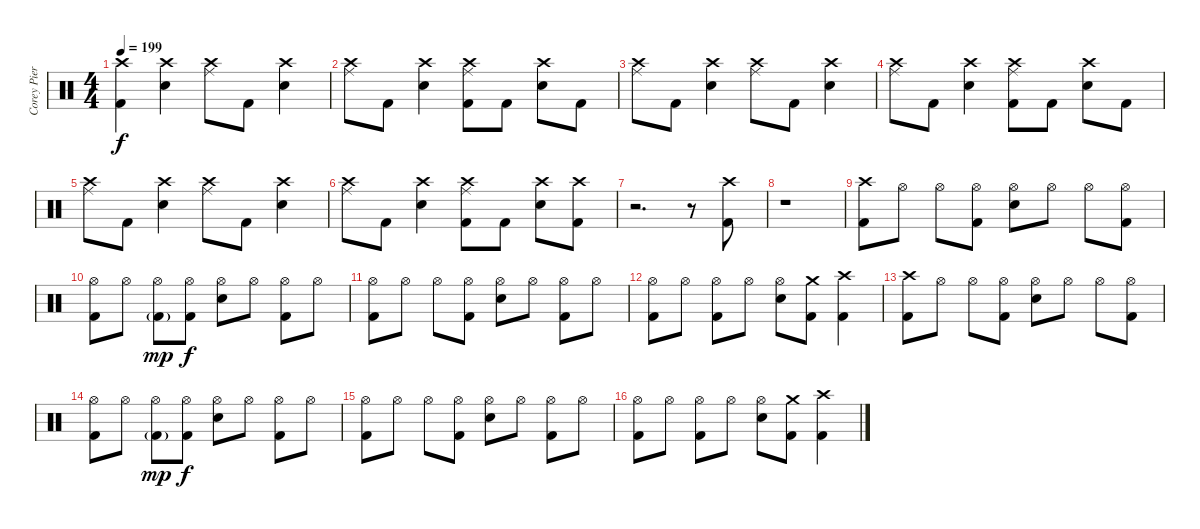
\track ("Corey Pierce (Drums)" "Corey Pier") {instrument percussion}
\staff {score}
\articulation defaults
\ts (4 4)
\tempo 199
\clef neutral
\ks c
("Crash high (hit)" "Kick (hit) 2").4{dy f} ("Crash high (hit)" "Snare (hit) 2").4 ("Ride (middle)" "Crash high (hit)").8 "Kick (hit) 2".8 ("Crash high (hit)" "Snare (hit) 2").4 |
("Ride (middle)" "Crash high (hit)").8 "Kick (hit) 2".8 ("Crash high (hit)" "Snare (hit) 2").4 ("Ride (middle)" "Crash high (hit)" "Kick (hit) 2").8 "Kick (hit) 2".8 ("Crash high (hit)" "Snare (hit) 2").8 "Kick (hit) 2".8 |
("Ride (middle)" "Crash high (hit)").8 "Kick (hit) 2".8 ("Crash high (hit)" "Snare (hit) 2").4 ("Ride (middle)" "Crash high (hit)").8 "Kick (hit) 2".8 ("Crash high (hit)" "Snare (hit) 2").4 |
("Ride (middle)" "Crash high (hit)").8 "Kick (hit) 2".8 ("Crash high (hit)" "Snare (hit) 2").4 ("Ride (middle)" "Crash high (hit)" "Kick (hit) 2").8 "Kick (hit) 2".8 ("Crash high (hit)" "Snare (hit) 2").8 "Kick (hit) 2".8 |
("Ride (middle)" "Crash high (hit)").8 "Kick (hit) 2".8 ("Crash high (hit)" "Snare (hit) 2").4 ("Ride (middle)" "Crash high (hit)").8 "Kick (hit) 2".8 ("Crash high (hit)" "Snare (hit) 2").4 |
("Ride (middle)" "Crash high (hit)").8 "Kick (hit) 2".8 ("Crash high (hit)" "Snare (hit) 2").4 ("Ride (middle)" "Crash high (hit)" "Kick (hit) 2").8 "Kick (hit) 2".8 ("Crash high (hit)" "Snare (hit) 2").8 ("Crash high (hit)" "Kick (hit) 2").8 |
r.2{d volume 0} r.8 ("Crash high (hit)" "Kick (hit) 2").8{volume 16} |
r.1{volume 0} |
("Crash high (hit)" "Kick (hit) 2").8{volume 16} "Hi-Hat (open)".8 "Hi-Hat (open)".8 ("Hi-Hat (open)" "Kick (hit) 2").8 ("Hi-Hat (open)" "Snare (hit) 2").8 "Hi-Hat (open)".8 "Hi-Hat (open)".8 ("Hi-Hat (open)" "Kick (hit) 2").8 |
("Hi-Hat (open)" "Kick (hit) 2").8 "Hi-Hat (open)".8 ("Hi-Hat (open)" "Kick (hit) 2"{g}).8{dy mp} ("Hi-Hat (open)" "Kick (hit) 2").8{dy f} ("Hi-Hat (open)" "Snare (hit) 2").8 "Hi-Hat (open)".8 ("Hi-Hat (open)" "Kick (hit) 2").8 "Hi-Hat (open)".8 |
("Hi-Hat (open)" "Kick (hit) 2").8 "Hi-Hat (open)".8 "Hi-Hat (open)".8 ("Hi-Hat (open)" "Kick (hit) 2").8 ("Hi-Hat (open)" "Snare (hit) 2").8 "Hi-Hat (open)".8 ("Hi-Hat (open)" "Kick (hit) 2").8 "Hi-Hat (open)".8 |
("Hi-Hat (open)" "Kick (hit) 2").8 "Hi-Hat (open)".8 ("Hi-Hat (open)" "Kick (hit) 2").8 "Hi-Hat (open)".8 ("Hi-Hat (open)" "Snare (hit) 2").8 ("Crash medium (hit)" "Kick (hit) 2").8 ("Crash high (hit)" "Kick (hit) 2").4 |
("Crash high (hit)" "Kick (hit) 2").8{volume 16} "Hi-Hat (open)".8 "Hi-Hat (open)".8 ("Hi-Hat (open)" "Kick (hit) 2").8 ("Hi-Hat (open)" "Snare (hit) 2").8 "Hi-Hat (open)".8 "Hi-Hat (open)".8 ("Hi-Hat (open)" "Kick (hit) 2").8 |
("Hi-Hat (open)" "Kick (hit) 2").8 "Hi-Hat (open)".8 ("Hi-Hat (open)" "Kick (hit) 2"{g}).8{dy mp} ("Hi-Hat (open)" "Kick (hit) 2").8{dy f} ("Hi-Hat (open)" "Snare (hit) 2").8 "Hi-Hat (open)".8 ("Hi-Hat (open)" "Kick (hit) 2").8 "Hi-Hat (open)".8 |
("Hi-Hat (open)" "Kick (hit) 2").8 "Hi-Hat (open)".8 "Hi-Hat (open)".8 ("Hi-Hat (open)" "Kick (hit) 2").8 ("Hi-Hat (open)" "Snare (hit) 2").8 "Hi-Hat (open)".8 ("Hi-Hat (open)" "Kick (hit) 2").8 "Hi-Hat (open)".8 |
("Hi-Hat (open)" "Kick (hit) 2").8 "Hi-Hat (open)".8 ("Hi-Hat (open)" "Kick (hit) 2").8 "Hi-Hat (open)".8 ("Hi-Hat (open)" "Snare (hit) 2").8 ("Crash medium (hit)" "Kick (hit) 2").8 ("Crash high (hit)" "Kick (hit) 2").4
